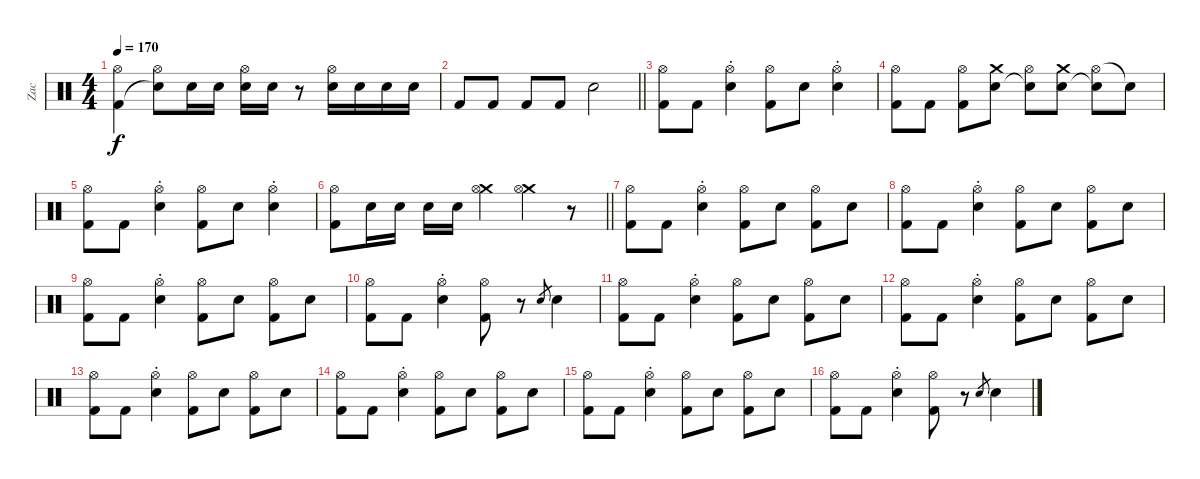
\track ("Zac" "Zac") {instrument percussion}
\staff {score}
\articulation defaults
\ts (4 4)
\tempo 170
\clef neutral
\ks c
("Hi-Hat (open)" "Kick (hit) 2").4{dy f} ("Hi-Hat (open)" "Snare (hit)"{t}).8 "Electric Snare (hit)".16 "Electric Snare (hit)".16 ("Hi-Hat (open)" "Electric Snare (hit)").16 "Electric Snare (hit)".16 r.8 ("Hi-Hat (open)" "Electric Snare (hit)").16 "Electric Snare (hit)".16 "Electric Snare (hit)".16 "Electric Snare (hit)".16 |
\barLineRight lightlight "Kick (hit) 2".8 "Kick (hit) 2".8 "Kick (hit) 2".8 "Kick (hit) 2".8 "Electric Snare (hit)".2
|
\section ("" "")
("Hi-Hat (open)" "Kick (hit) 2").8 "Kick (hit) 2".8 ("Hi-Hat (open)"{st} "Electric Snare (hit)").4 ("Hi-Hat (open)" "Kick (hit) 2").8 "Electric Snare (hit)".8 ("Hi-Hat (open)"{st} "Electric Snare (hit)").4 |
("Hi-Hat (open)" "Kick (hit) 2").8 "Kick (hit) 2".8 ("Hi-Hat (open)" "Kick (hit) 2").8 ("Crash medium (hit)" "Electric Snare (hit)").8 ("Hi-Hat (open)" "Electric Snare (hit)"{t}).8 ("Crash medium (hit)" "Electric Snare (hit)").8 ("Hi-Hat (open)" "Electric Snare (hit)"{t}).8 "Electric Snare (hit)"{t}.8 |
("Hi-Hat (open)" "Kick (hit) 2").8 "Kick (hit) 2".8 ("Hi-Hat (open)"{st} "Electric Snare (hit)").4 ("Hi-Hat (open)" "Kick (hit) 2").8 "Electric Snare (hit)".8 ("Hi-Hat (open)"{st} "Electric Snare (hit)").4 |
\barLineRight lightlight
("Hi-Hat (open)" "Kick (hit) 2").8 "Electric Snare (hit)".16 "Electric Snare (hit)".16 "Electric Snare (hit)".16 "Electric Snare (hit)".16 ("Crash medium (hit)" "Hi-Hat (open)").4 ("Crash medium (hit)" "Hi-Hat (open)").4 r.8 |
\section ("" "")
("Hi-Hat (open)" "Kick (hit) 2").8 "Kick (hit) 2".8 ("Hi-Hat (open)"{st} "Electric Snare (hit)").4 ("Hi-Hat (open)" "Kick (hit) 2").8 "Electric Snare (hit)".8 ("Hi-Hat (open)" "Kick (hit) 2").8 "Electric Snare (hit)".8 |
("Hi-Hat (open)" "Kick (hit) 2").8 "Kick (hit) 2".8 ("Hi-Hat (open)"{st} "Electric Snare (hit)").4 ("Hi-Hat (open)" "Kick (hit) 2").8 "Electric Snare (hit)".8 ("Hi-Hat (open)" "Kick (hit) 2").8 "Electric Snare (hit)".8 |
("Hi-Hat (open)" "Kick (hit) 2").8 "Kick (hit) 2".8 ("Hi-Hat (open)"{st} "Electric Snare (hit)").4 ("Hi-Hat (open)" "Kick (hit) 2").8 "Electric Snare (hit)".8 ("Hi-Hat (open)" "Kick (hit) 2").8 "Electric Snare (hit)".8 |
("Hi-Hat (open)" "Kick (hit) 2").8 "Kick (hit) 2".8 ("Hi-Hat (open)"{st} "Electric Snare (hit)").4 ("Hi-Hat (open)" "Kick (hit) 2").8 r.8 "Electric Snare (hit)".8{gr} "Electric Snare (hit)".4 |
("Hi-Hat (open)" "Kick (hit) 2").8 "Kick (hit) 2".8 ("Hi-Hat (open)"{st} "Electric Snare (hit)").4 ("Hi-Hat (open)" "Kick (hit) 2").8 "Electric Snare (hit)".8 ("Hi-Hat (open)" "Kick (hit) 2").8 "Electric Snare (hit)".8 |
("Hi-Hat (open)" "Kick (hit) 2").8 "Kick (hit) 2".8 ("Hi-Hat (open)"{st} "Electric Snare (hit)").4 ("Hi-Hat (open)" "Kick (hit) 2").8 "Electric Snare (hit)".8 ("Hi-Hat (open)" "Kick (hit) 2").8 "Electric Snare (hit)".8 |
("Hi-Hat (open)" "Kick (hit) 2").8 "Kick (hit) 2".8 ("Hi-Hat (open)"{st} "Electric Snare (hit)").4 ("Hi-Hat (open)" "Kick (hit) 2").8 "Electric Snare (hit)".8 ("Hi-Hat (open)" "Kick (hit) 2").8 "Electric Snare (hit)".8 |
("Hi-Hat (open)" "Kick (hit) 2").8 "Kick (hit) 2".8 ("Hi-Hat (open)"{st} "Electric Snare (hit)").4 ("Hi-Hat (open)" "Kick (hit) 2").8 "Electric Snare (hit)".8 ("Hi-Hat (open)" "Kick (hit) 2").8 "Electric Snare (hit)".8 |
("Hi-Hat (open)" "Kick (hit) 2").8 "Kick (hit) 2".8 ("Hi-Hat (open)"{st} "Electric Snare (hit)").4 ("Hi-Hat (open)" "Kick (hit) 2").8 "Electric Snare (hit)".8 ("Hi-Hat (open)" "Kick (hit) 2").8 "Electric Snare (hit)".8 |
("Hi-Hat (open)" "Kick (hit) 2").8 "Kick (hit) 2".8 ("Hi-Hat (open)"{st} "Electric Snare (hit)").4 ("Hi-Hat (open)" "Kick (hit) 2").8 r.8 "Electric Snare (hit)".8{gr} "Electric Snare (hit)".4
